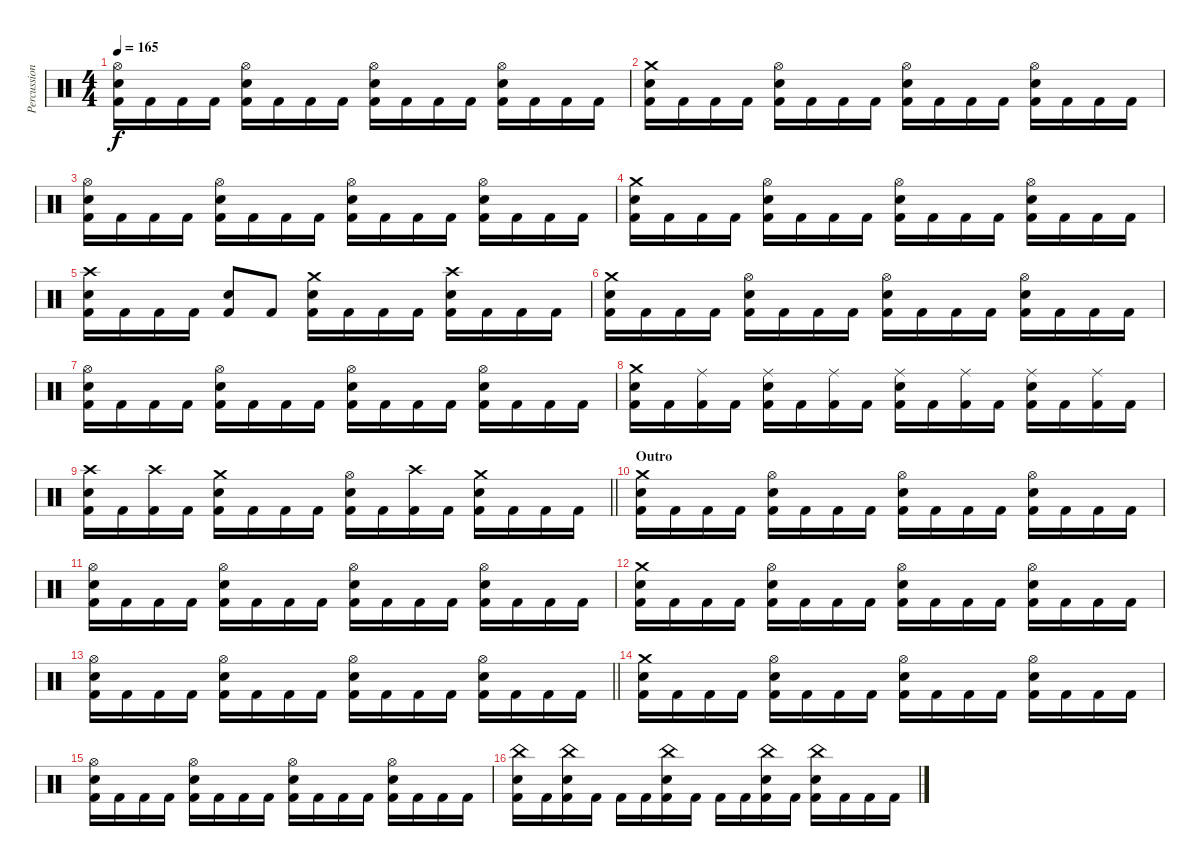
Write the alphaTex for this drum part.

\track ("Percussions" "Percussion") {instrument percussion}
\staff {score}
\articulation defaults
\ts (4 4)
\tempo 165
\clef neutral
\ks c
("Hi-Hat (open)" "Electric Snare (hit)" "Kick (hit) 2").16{dy f} "Kick (hit) 2".16 "Kick (hit) 2".16 "Kick (hit) 2".16 ("Hi-Hat (open)" "Electric Snare (hit)" "Kick (hit) 2").16 "Kick (hit) 2".16 "Kick (hit) 2".16 "Kick (hit) 2".16 ("Hi-Hat (open)" "Electric Snare (hit)" "Kick (hit) 2").16 "Kick (hit) 2".16 "Kick (hit) 2".16 "Kick (hit) 2".16 ("Hi-Hat (open)" "Electric Snare (hit)" "Kick (hit) 2").16 "Kick (hit) 2".16 "Kick (hit) 2".16 "Kick (hit) 2".16 |
("Crash medium (hit)" "Electric Snare (hit)" "Kick (hit) 2").16 "Kick (hit) 2".16 "Kick (hit) 2".16 "Kick (hit) 2".16 ("Hi-Hat (open)" "Electric Snare (hit)" "Kick (hit) 2").16 "Kick (hit) 2".16 "Kick (hit) 2".16 "Kick (hit) 2".16 ("Hi-Hat (open)" "Electric Snare (hit)" "Kick (hit) 2").16 "Kick (hit) 2".16 "Kick (hit) 2".16 "Kick (hit) 2".16 ("Hi-Hat (open)" "Electric Snare (hit)" "Kick (hit) 2").16 "Kick (hit) 2".16 "Kick (hit) 2".16 "Kick (hit) 2".16 |
("Hi-Hat (open)" "Electric Snare (hit)" "Kick (hit) 2").16 "Kick (hit) 2".16 "Kick (hit) 2".16 "Kick (hit) 2".16 ("Hi-Hat (open)" "Electric Snare (hit)" "Kick (hit) 2").16 "Kick (hit) 2".16 "Kick (hit) 2".16 "Kick (hit) 2".16 ("Hi-Hat (open)" "Electric Snare (hit)" "Kick (hit) 2").16 "Kick (hit) 2".16 "Kick (hit) 2".16 "Kick (hit) 2".16 ("Hi-Hat (open)" "Electric Snare (hit)" "Kick (hit) 2").16 "Kick (hit) 2".16 "Kick (hit) 2".16 "Kick (hit) 2".16 |
("Crash medium (hit)" "Electric Snare (hit)" "Kick (hit) 2").16 "Kick (hit) 2".16 "Kick (hit) 2".16 "Kick (hit) 2".16 ("Hi-Hat (open)" "Electric Snare (hit)" "Kick (hit) 2").16 "Kick (hit) 2".16 "Kick (hit) 2".16 "Kick (hit) 2".16 ("Hi-Hat (open)" "Electric Snare (hit)" "Kick (hit) 2").16 "Kick (hit) 2".16 "Kick (hit) 2".16 "Kick (hit) 2".16 ("Hi-Hat (open)" "Electric Snare (hit)" "Kick (hit) 2").16 "Kick (hit) 2".16 "Kick (hit) 2".16 "Kick (hit) 2".16 |
("Crash high (hit)" "Electric Snare (hit)" "Kick (hit) 2").16 "Kick (hit) 2".16 "Kick (hit) 2".16 "Kick (hit) 2".16 ("Electric Snare (hit)" "Kick (hit) 2").8 "Kick (hit) 2".8 ("Crash medium (hit)" "Electric Snare (hit)" "Kick (hit) 2").16 "Kick (hit) 2".16 "Kick (hit) 2".16 "Kick (hit) 2".16 ("Crash high (hit)" "Electric Snare (hit)" "Kick (hit) 2").16 "Kick (hit) 2".16 "Kick (hit) 2".16 "Kick (hit) 2".16 |
("Crash medium (hit)" "Electric Snare (hit)" "Kick (hit) 2").16 "Kick (hit) 2".16 "Kick (hit) 2".16 "Kick (hit) 2".16 ("Hi-Hat (open)" "Electric Snare (hit)" "Kick (hit) 2").16 "Kick (hit) 2".16 "Kick (hit) 2".16 "Kick (hit) 2".16 ("Hi-Hat (open)" "Electric Snare (hit)" "Kick (hit) 2").16 "Kick (hit) 2".16 "Kick (hit) 2".16 "Kick (hit) 2".16 ("Hi-Hat (open)" "Electric Snare (hit)" "Kick (hit) 2").16 "Kick (hit) 2".16 "Kick (hit) 2".16 "Kick (hit) 2".16 |
("Hi-Hat (open)" "Electric Snare (hit)" "Kick (hit) 2").16 "Kick (hit) 2".16 "Kick (hit) 2".16 "Kick (hit) 2".16 ("Hi-Hat (open)" "Electric Snare (hit)" "Kick (hit) 2").16 "Kick (hit) 2".16 "Kick (hit) 2".16 "Kick (hit) 2".16 ("Hi-Hat (open)" "Electric Snare (hit)" "Kick (hit) 2").16 "Kick (hit) 2".16 "Kick (hit) 2".16 "Kick (hit) 2".16 ("Hi-Hat (open)" "Electric Snare (hit)" "Kick (hit) 2").16 "Kick (hit) 2".16 "Kick (hit) 2".16 "Kick (hit) 2".16 |
("Crash medium (hit)" "Electric Snare (hit)" "Kick (hit) 2").16 "Kick (hit) 2".16 ("Ride (middle)" "Kick (hit) 2").16 "Kick (hit) 2".16 ("Ride (middle)" "Electric Snare (hit)" "Kick (hit) 2").16 "Kick (hit) 2".16 ("Ride (middle)" "Kick (hit) 2").16 "Kick (hit) 2".16 ("Ride (middle)" "Electric Snare (hit)" "Kick (hit) 2").16 "Kick (hit) 2".16 ("Ride (middle)" "Kick (hit) 2").16 "Kick (hit) 2".16 ("Ride (middle)" "Electric Snare (hit)" "Kick (hit) 2").16 "Kick (hit) 2".16 ("Ride (middle)" "Kick (hit) 2").16 "Kick (hit) 2".16 |
\barLineRight lightlight
("Crash high (hit)" "Electric Snare (hit)" "Kick (hit) 2").16 "Kick (hit) 2".16 ("Crash high (hit)" "Kick (hit) 2").16 "Kick (hit) 2".16 ("Crash medium (hit)" "Electric Snare (hit)" "Kick (hit) 2").16 "Kick (hit) 2".16 "Kick (hit) 2".16 "Kick (hit) 2".16 ("Hi-Hat (open)" "Electric Snare (hit)" "Kick (hit) 2").16 "Kick (hit) 2".16 ("Crash high (hit)" "Kick (hit) 2").16 "Kick (hit) 2".16 ("Crash medium (hit)" "Electric Snare (hit)" "Kick (hit) 2").16 "Kick (hit) 2".16 "Kick (hit) 2".16 "Kick (hit) 2".16 |
\section ("" "Outro")
("Crash medium (hit)" "Electric Snare (hit)" "Kick (hit) 2").16 "Kick (hit) 2".16 "Kick (hit) 2".16 "Kick (hit) 2".16 ("Hi-Hat (open)" "Electric Snare (hit)" "Kick (hit) 2").16 "Kick (hit) 2".16 "Kick (hit) 2".16 "Kick (hit) 2".16 ("Hi-Hat (open)" "Electric Snare (hit)" "Kick (hit) 2").16 "Kick (hit) 2".16 "Kick (hit) 2".16 "Kick (hit) 2".16 ("Hi-Hat (open)" "Electric Snare (hit)" "Kick (hit) 2").16 "Kick (hit) 2".16 "Kick (hit) 2".16 "Kick (hit) 2".16 |
("Hi-Hat (open)" "Electric Snare (hit)" "Kick (hit) 2").16 "Kick (hit) 2".16 "Kick (hit) 2".16 "Kick (hit) 2".16 ("Hi-Hat (open)" "Electric Snare (hit)" "Kick (hit) 2").16 "Kick (hit) 2".16 "Kick (hit) 2".16 "Kick (hit) 2".16 ("Hi-Hat (open)" "Electric Snare (hit)" "Kick (hit) 2").16 "Kick (hit) 2".16 "Kick (hit) 2".16 "Kick (hit) 2".16 ("Hi-Hat (open)" "Electric Snare (hit)" "Kick (hit) 2").16 "Kick (hit) 2".16 "Kick (hit) 2".16 "Kick (hit) 2".16 |
("Crash medium (hit)" "Electric Snare (hit)" "Kick (hit) 2").16 "Kick (hit) 2".16 "Kick (hit) 2".16 "Kick (hit) 2".16 ("Hi-Hat (open)" "Electric Snare (hit)" "Kick (hit) 2").16 "Kick (hit) 2".16 "Kick (hit) 2".16 "Kick (hit) 2".16 ("Hi-Hat (open)" "Electric Snare (hit)" "Kick (hit) 2").16 "Kick (hit) 2".16 "Kick (hit) 2".16 "Kick (hit) 2".16 ("Hi-Hat (open)" "Electric Snare (hit)" "Kick (hit) 2").16 "Kick (hit) 2".16 "Kick (hit) 2".16 "Kick (hit) 2".16 |
\barLineRight lightlight
("Hi-Hat (open)" "Electric Snare (hit)" "Kick (hit) 2").16 "Kick (hit) 2".16 "Kick (hit) 2".16 "Kick (hit) 2".16 ("Hi-Hat (open)" "Electric Snare (hit)" "Kick (hit) 2").16 "Kick (hit) 2".16 "Kick (hit) 2".16 "Kick (hit) 2".16 ("Hi-Hat (open)" "Electric Snare (hit)" "Kick (hit) 2").16 "Kick (hit) 2".16 "Kick (hit) 2".16 "Kick (hit) 2".16 ("Hi-Hat (open)" "Electric Snare (hit)" "Kick (hit) 2").16 "Kick (hit) 2".16 "Kick (hit) 2".16 "Kick (hit) 2".16 |
("Crash medium (hit)" "Electric Snare (hit)" "Kick (hit) 2").16 "Kick (hit) 2".16 "Kick (hit) 2".16 "Kick (hit) 2".16 ("Hi-Hat (open)" "Electric Snare (hit)" "Kick (hit) 2").16 "Kick (hit) 2".16 "Kick (hit) 2".16 "Kick (hit) 2".16 ("Hi-Hat (open)" "Electric Snare (hit)" "Kick (hit) 2").16 "Kick (hit) 2".16 "Kick (hit) 2".16 "Kick (hit) 2".16 ("Hi-Hat (open)" "Electric Snare (hit)" "Kick (hit) 2").16 "Kick (hit) 2".16 "Kick (hit) 2".16 "Kick (hit) 2".16 |
("Hi-Hat (open)" "Electric Snare (hit)" "Kick (hit) 2").16 "Kick (hit) 2".16 "Kick (hit) 2".16 "Kick (hit) 2".16 ("Hi-Hat (open)" "Electric Snare (hit)" "Kick (hit) 2").16 "Kick (hit) 2".16 "Kick (hit) 2".16 "Kick (hit) 2".16 ("Hi-Hat (open)" "Electric Snare (hit)" "Kick (hit) 2").16 "Kick (hit) 2".16 "Kick (hit) 2".16 "Kick (hit) 2".16 ("Hi-Hat (open)" "Electric Snare (hit)" "Kick (hit) 2").16 "Kick (hit) 2".16 "Kick (hit) 2".16 "Kick (hit) 2".16 |
("China (hit)" "Electric Snare (hit)" "Kick (hit) 2").16 "Kick (hit) 2".16 ("China (hit)" "Electric Snare (hit)" "Kick (hit) 2").16 "Kick (hit) 2".16 "Kick (hit) 2".16 "Kick (hit) 2".16 ("China (hit)" "Electric Snare (hit)" "Kick (hit) 2").16 "Kick (hit) 2".16 "Kick (hit) 2".16 "Kick (hit) 2".16 ("China (hit)" "Electric Snare (hit)" "Kick (hit) 2").16 "Kick (hit) 2".16 ("China (hit)" "Electric Snare (hit)" "Kick (hit) 2").16 "Kick (hit) 2".16 "Kick (hit) 2".16 "Kick (hit) 2".16
